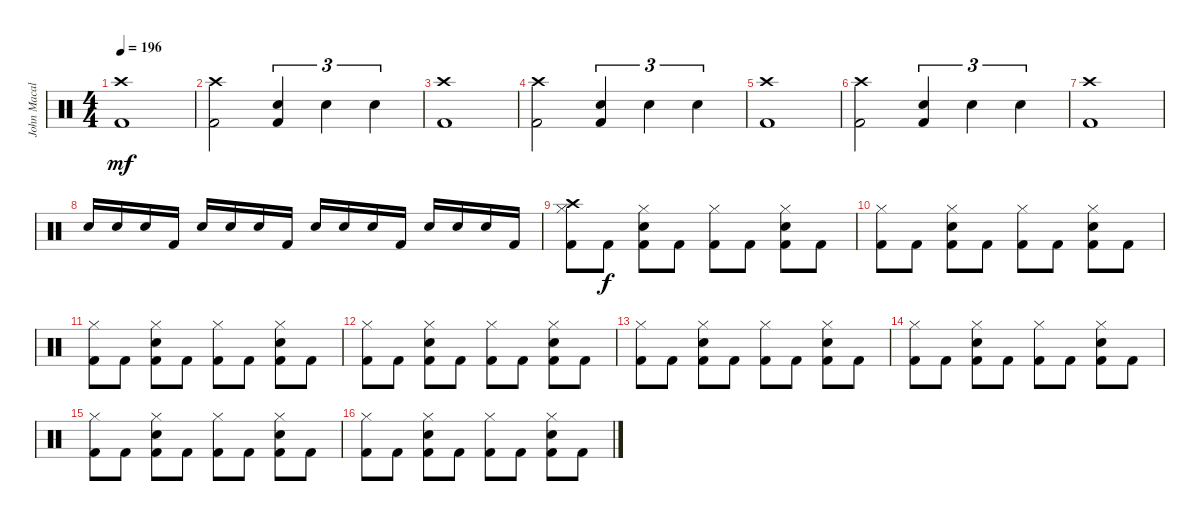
\track ("John Macaluso" "John Macal") {instrument percussion}
\staff {score}
\articulation defaults
\ts (4 4)
\tempo 196
\clef neutral
\ks c
("Crash high (hit)" "Kick (hit) 2").1{dy mf} |
("Crash high (hit)" "Kick (hit) 2").2 ("Electric Snare (hit)" "Kick (hit) 2").4{tu (3 2)} "Electric Snare (hit)".4{tu (3 2)} "Electric Snare (hit)".4{tu (3 2)} |
("Crash high (hit)" "Kick (hit) 2").1 |
("Crash high (hit)" "Kick (hit) 2").2 ("Electric Snare (hit)" "Kick (hit) 2").4{tu (3 2)} "Electric Snare (hit)".4{tu (3 2)} "Electric Snare (hit)".4{tu (3 2)} |
("Crash high (hit)" "Kick (hit) 2").1 |
("Crash high (hit)" "Kick (hit) 2").2 ("Electric Snare (hit)" "Kick (hit) 2").4{tu (3 2)} "Electric Snare (hit)".4{tu (3 2)} "Electric Snare (hit)".4{tu (3 2)} |
("Crash high (hit)" "Kick (hit) 2").1 |
"Electric Snare (hit)".16 "Electric Snare (hit)".16 "Electric Snare (hit)".16 "Kick (hit) 2".16 "Electric Snare (hit)".16 "Electric Snare (hit)".16 "Electric Snare (hit)".16 "Kick (hit) 2".16 "Electric Snare (hit)".16 "Electric Snare (hit)".16 "Electric Snare (hit)".16 "Kick (hit) 2".16 "Electric Snare (hit)".16 "Electric Snare (hit)".16 "Electric Snare (hit)".16 "Kick (hit) 2".16 |
("Crash high (hit)" "Hi-Hat (closed)" "Kick (hit) 2").8 "Kick (hit) 2".8{dy f} ("Electric Snare (hit)" "Hi-Hat (closed)" "Kick (hit) 2").8 "Kick (hit) 2".8 ("Hi-Hat (closed)" "Kick (hit) 2").8 "Kick (hit) 2".8 ("Electric Snare (hit)" "Hi-Hat (closed)" "Kick (hit) 2").8 "Kick (hit) 2".8 |
("Hi-Hat (closed)" "Kick (hit) 2").8 "Kick (hit) 2".8 ("Electric Snare (hit)" "Hi-Hat (closed)" "Kick (hit) 2").8 "Kick (hit) 2".8 ("Hi-Hat (closed)" "Kick (hit) 2").8 "Kick (hit) 2".8 ("Electric Snare (hit)" "Hi-Hat (closed)" "Kick (hit) 2").8 "Kick (hit) 2".8 |
("Hi-Hat (closed)" "Kick (hit) 2").8 "Kick (hit) 2".8 ("Electric Snare (hit)" "Hi-Hat (closed)" "Kick (hit) 2").8 "Kick (hit) 2".8 ("Hi-Hat (closed)" "Kick (hit) 2").8 "Kick (hit) 2".8 ("Electric Snare (hit)" "Hi-Hat (closed)" "Kick (hit) 2").8 "Kick (hit) 2".8 |
("Hi-Hat (closed)" "Kick (hit) 2").8 "Kick (hit) 2".8 ("Electric Snare (hit)" "Hi-Hat (closed)" "Kick (hit) 2").8 "Kick (hit) 2".8 ("Hi-Hat (closed)" "Kick (hit) 2").8 "Kick (hit) 2".8 ("Electric Snare (hit)" "Hi-Hat (closed)" "Kick (hit) 2").8 "Kick (hit) 2".8 |
("Hi-Hat (closed)" "Kick (hit) 2").8 "Kick (hit) 2".8 ("Electric Snare (hit)" "Hi-Hat (closed)" "Kick (hit) 2").8 "Kick (hit) 2".8 ("Hi-Hat (closed)" "Kick (hit) 2").8 "Kick (hit) 2".8 ("Electric Snare (hit)" "Hi-Hat (closed)" "Kick (hit) 2").8 "Kick (hit) 2".8 |
("Hi-Hat (closed)" "Kick (hit) 2").8 "Kick (hit) 2".8 ("Electric Snare (hit)" "Hi-Hat (closed)" "Kick (hit) 2").8 "Kick (hit) 2".8 ("Hi-Hat (closed)" "Kick (hit) 2").8 "Kick (hit) 2".8 ("Electric Snare (hit)" "Hi-Hat (closed)" "Kick (hit) 2").8 "Kick (hit) 2".8 |
("Hi-Hat (closed)" "Kick (hit) 2").8 "Kick (hit) 2".8 ("Electric Snare (hit)" "Hi-Hat (closed)" "Kick (hit) 2").8 "Kick (hit) 2".8 ("Hi-Hat (closed)" "Kick (hit) 2").8 "Kick (hit) 2".8 ("Electric Snare (hit)" "Hi-Hat (closed)" "Kick (hit) 2").8 "Kick (hit) 2".8 |
("Hi-Hat (closed)" "Kick (hit) 2").8 "Kick (hit) 2".8 ("Electric Snare (hit)" "Hi-Hat (closed)" "Kick (hit) 2").8 "Kick (hit) 2".8 ("Hi-Hat (closed)" "Kick (hit) 2").8 "Kick (hit) 2".8 ("Electric Snare (hit)" "Hi-Hat (closed)" "Kick (hit) 2").8 "Kick (hit) 2".8
